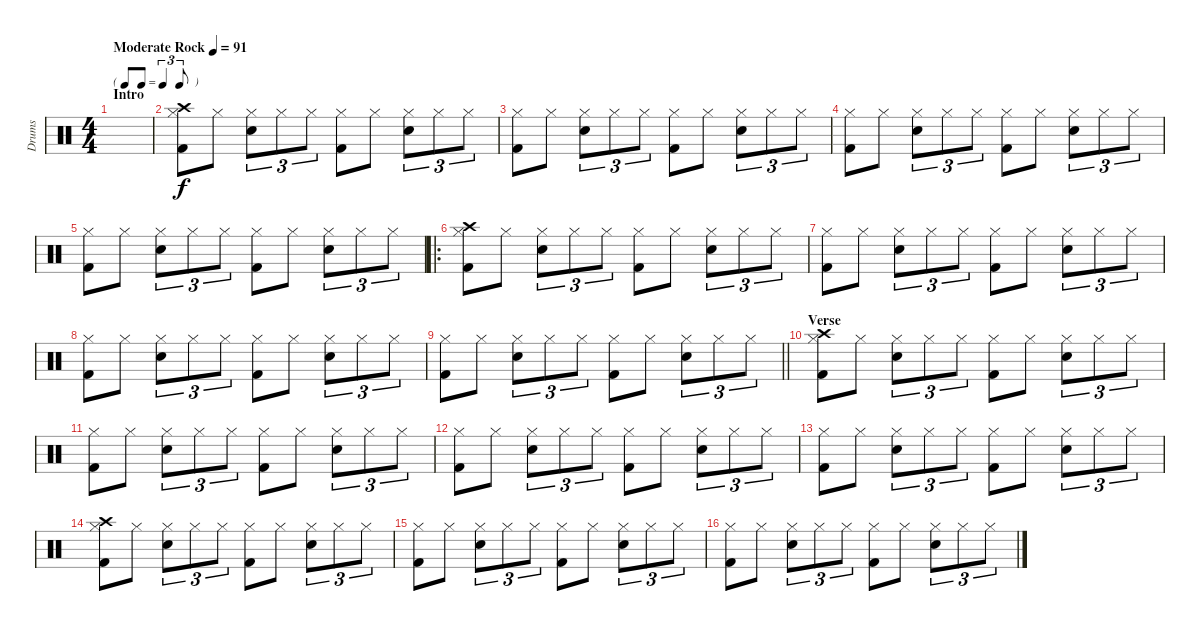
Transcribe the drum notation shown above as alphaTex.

\track ("Drums" "Drums") {instrument percussion}
\staff {score}
\articulation defaults
\ts (4 4)
\tf triplet8th
\section ("" "Intro")
\tempo (91 "Moderate Rock")
\clef neutral
\ks c
|
("Crash high (hit)" "Hi-Hat (closed)" "Kick (hit) 2").8 "Hi-Hat (closed)".8 ("Hi-Hat (closed)" "Snare (hit) 2").8{tu (3 2)} "Hi-Hat (closed)".8{tu (3 2)} "Hi-Hat (closed)".8{tu (3 2)} ("Hi-Hat (closed)" "Kick (hit) 2").8 "Hi-Hat (closed)".8 ("Hi-Hat (closed)" "Snare (hit) 2").8{tu (3 2)} "Hi-Hat (closed)".8{tu (3 2)} "Hi-Hat (closed)".8{tu (3 2)} |
("Hi-Hat (closed)" "Kick (hit) 2").8 "Hi-Hat (closed)".8 ("Hi-Hat (closed)" "Snare (hit) 2").8{tu (3 2)} "Hi-Hat (closed)".8{tu (3 2)} "Hi-Hat (closed)".8{tu (3 2)} ("Hi-Hat (closed)" "Kick (hit) 2").8 "Hi-Hat (closed)".8 ("Hi-Hat (closed)" "Snare (hit) 2").8{tu (3 2)} "Hi-Hat (closed)".8{tu (3 2)} "Hi-Hat (closed)".8{tu (3 2)} |
("Hi-Hat (closed)" "Kick (hit) 2").8 "Hi-Hat (closed)".8 ("Hi-Hat (closed)" "Snare (hit) 2").8{tu (3 2)} "Hi-Hat (closed)".8{tu (3 2)} "Hi-Hat (closed)".8{tu (3 2)} ("Hi-Hat (closed)" "Kick (hit) 2").8 "Hi-Hat (closed)".8 ("Hi-Hat (closed)" "Snare (hit) 2").8{tu (3 2)} "Hi-Hat (closed)".8{tu (3 2)} "Hi-Hat (closed)".8{tu (3 2)} |
("Hi-Hat (closed)" "Kick (hit) 2").8 "Hi-Hat (closed)".8 ("Hi-Hat (closed)" "Snare (hit) 2").8{tu (3 2)} "Hi-Hat (closed)".8{tu (3 2)} "Hi-Hat (closed)".8{tu (3 2)} ("Hi-Hat (closed)" "Kick (hit) 2").8 "Hi-Hat (closed)".8 ("Hi-Hat (closed)" "Snare (hit) 2").8{tu (3 2)} "Hi-Hat (closed)".8{tu (3 2)} "Hi-Hat (closed)".8{tu (3 2)} |
\ro
("Crash high (hit)" "Hi-Hat (closed)" "Kick (hit) 2").8 "Hi-Hat (closed)".8 ("Hi-Hat (closed)" "Snare (hit) 2").8{tu (3 2)} "Hi-Hat (closed)".8{tu (3 2)} "Hi-Hat (closed)".8{tu (3 2)} ("Hi-Hat (closed)" "Kick (hit) 2").8 "Hi-Hat (closed)".8 ("Hi-Hat (closed)" "Snare (hit) 2").8{tu (3 2)} "Hi-Hat (closed)".8{tu (3 2)} "Hi-Hat (closed)".8{tu (3 2)} |
("Hi-Hat (closed)" "Kick (hit) 2").8 "Hi-Hat (closed)".8 ("Hi-Hat (closed)" "Snare (hit) 2").8{tu (3 2)} "Hi-Hat (closed)".8{tu (3 2)} "Hi-Hat (closed)".8{tu (3 2)} ("Hi-Hat (closed)" "Kick (hit) 2").8 "Hi-Hat (closed)".8 ("Hi-Hat (closed)" "Snare (hit) 2").8{tu (3 2)} "Hi-Hat (closed)".8{tu (3 2)} "Hi-Hat (closed)".8{tu (3 2)} |
("Hi-Hat (closed)" "Kick (hit) 2").8 "Hi-Hat (closed)".8 ("Hi-Hat (closed)" "Snare (hit) 2").8{tu (3 2)} "Hi-Hat (closed)".8{tu (3 2)} "Hi-Hat (closed)".8{tu (3 2)} ("Hi-Hat (closed)" "Kick (hit) 2").8 "Hi-Hat (closed)".8 ("Hi-Hat (closed)" "Snare (hit) 2").8{tu (3 2)} "Hi-Hat (closed)".8{tu (3 2)} "Hi-Hat (closed)".8{tu (3 2)} |
\barLineRight lightlight
("Hi-Hat (closed)" "Kick (hit) 2").8 "Hi-Hat (closed)".8 ("Hi-Hat (closed)" "Snare (hit) 2").8{tu (3 2)} "Hi-Hat (closed)".8{tu (3 2)} "Hi-Hat (closed)".8{tu (3 2)} ("Hi-Hat (closed)" "Kick (hit) 2").8 "Hi-Hat (closed)".8 ("Hi-Hat (closed)" "Snare (hit) 2").8{tu (3 2)} "Hi-Hat (closed)".8{tu (3 2)} "Hi-Hat (closed)".8{tu (3 2)} |
\section ("" "Verse")
("Crash high (hit)" "Hi-Hat (closed)" "Kick (hit) 2").8 "Hi-Hat (closed)".8 ("Hi-Hat (closed)" "Snare (hit) 2").8{tu (3 2)} "Hi-Hat (closed)".8{tu (3 2)} "Hi-Hat (closed)".8{tu (3 2)} ("Hi-Hat (closed)" "Kick (hit) 2").8 "Hi-Hat (closed)".8 ("Hi-Hat (closed)" "Snare (hit) 2").8{tu (3 2)} "Hi-Hat (closed)".8{tu (3 2)} "Hi-Hat (closed)".8{tu (3 2)} |
("Hi-Hat (closed)" "Kick (hit) 2").8 "Hi-Hat (closed)".8 ("Hi-Hat (closed)" "Snare (hit) 2").8{tu (3 2)} "Hi-Hat (closed)".8{tu (3 2)} "Hi-Hat (closed)".8{tu (3 2)} ("Hi-Hat (closed)" "Kick (hit) 2").8 "Hi-Hat (closed)".8 ("Hi-Hat (closed)" "Snare (hit) 2").8{tu (3 2)} "Hi-Hat (closed)".8{tu (3 2)} "Hi-Hat (closed)".8{tu (3 2)} |
("Hi-Hat (closed)" "Kick (hit) 2").8 "Hi-Hat (closed)".8 ("Hi-Hat (closed)" "Snare (hit) 2").8{tu (3 2)} "Hi-Hat (closed)".8{tu (3 2)} "Hi-Hat (closed)".8{tu (3 2)} ("Hi-Hat (closed)" "Kick (hit) 2").8 "Hi-Hat (closed)".8 ("Hi-Hat (closed)" "Snare (hit) 2").8{tu (3 2)} "Hi-Hat (closed)".8{tu (3 2)} "Hi-Hat (closed)".8{tu (3 2)} |
("Hi-Hat (closed)" "Kick (hit) 2").8 "Hi-Hat (closed)".8 ("Hi-Hat (closed)" "Snare (hit) 2").8{tu (3 2)} "Hi-Hat (closed)".8{tu (3 2)} "Hi-Hat (closed)".8{tu (3 2)} ("Hi-Hat (closed)" "Kick (hit) 2").8 "Hi-Hat (closed)".8 ("Hi-Hat (closed)" "Snare (hit) 2").8{tu (3 2)} "Hi-Hat (closed)".8{tu (3 2)} "Hi-Hat (closed)".8{tu (3 2)} |
("Crash high (hit)" "Hi-Hat (closed)" "Kick (hit) 2").8 "Hi-Hat (closed)".8 ("Hi-Hat (closed)" "Snare (hit) 2").8{tu (3 2)} "Hi-Hat (closed)".8{tu (3 2)} "Hi-Hat (closed)".8{tu (3 2)} ("Hi-Hat (closed)" "Kick (hit) 2").8 "Hi-Hat (closed)".8 ("Hi-Hat (closed)" "Snare (hit) 2").8{tu (3 2)} "Hi-Hat (closed)".8{tu (3 2)} "Hi-Hat (closed)".8{tu (3 2)} |
("Hi-Hat (closed)" "Kick (hit) 2").8 "Hi-Hat (closed)".8 ("Hi-Hat (closed)" "Snare (hit) 2").8{tu (3 2)} "Hi-Hat (closed)".8{tu (3 2)} "Hi-Hat (closed)".8{tu (3 2)} ("Hi-Hat (closed)" "Kick (hit) 2").8 "Hi-Hat (closed)".8 ("Hi-Hat (closed)" "Snare (hit) 2").8{tu (3 2)} "Hi-Hat (closed)".8{tu (3 2)} "Hi-Hat (closed)".8{tu (3 2)} |
("Hi-Hat (closed)" "Kick (hit) 2").8 "Hi-Hat (closed)".8 ("Hi-Hat (closed)" "Snare (hit) 2").8{tu (3 2)} "Hi-Hat (closed)".8{tu (3 2)} "Hi-Hat (closed)".8{tu (3 2)} ("Hi-Hat (closed)" "Kick (hit) 2").8 "Hi-Hat (closed)".8 ("Hi-Hat (closed)" "Snare (hit) 2").8{tu (3 2)} "Hi-Hat (closed)".8{tu (3 2)} "Hi-Hat (closed)".8{tu (3 2)}
